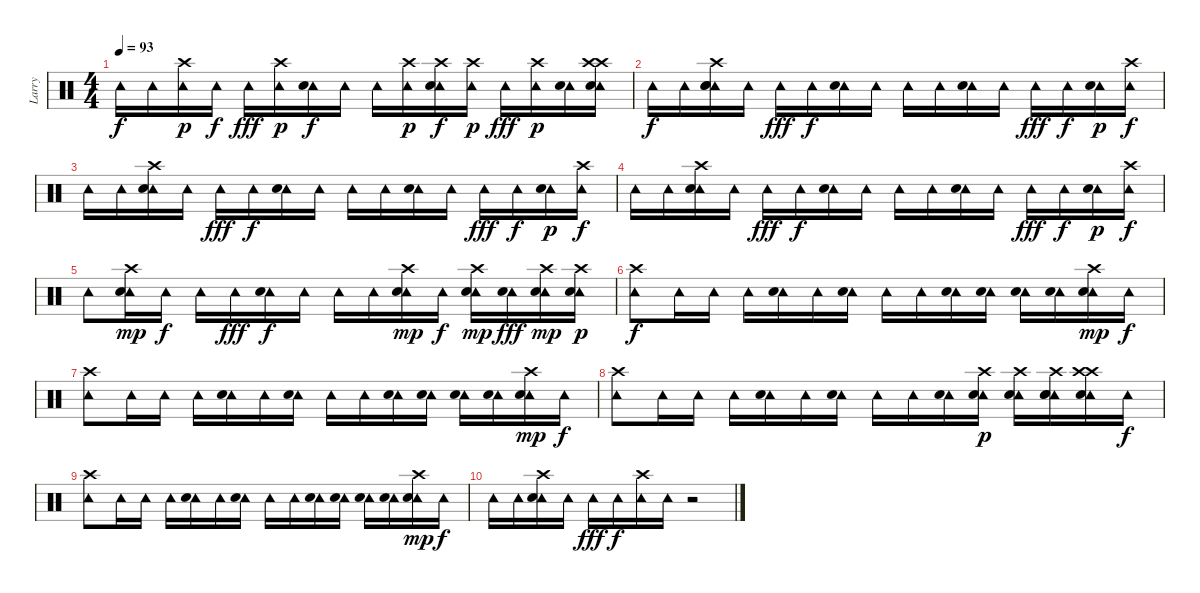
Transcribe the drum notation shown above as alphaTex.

\track ("Larry" "Larry") {instrument percussion}
\staff {score}
\articulation defaults
\ts (4 4)
\tempo 93
\clef neutral
\ks c "Tambourine (hit)".16{dy f} "Tambourine (hit)".16
("Tambourine (hit)" "Crash high (hit)").16{dy p} "Tambourine (hit)".16{dy f} "Tambourine (hit)".16{dy fff} ("Tambourine (hit)" "Crash high (hit)").16{dy p} ("Tambourine (hit)" "Electric Snare (hit)").16{dy f} "Tambourine (hit)".16 "Tambourine (hit)".16 ("Tambourine (hit)" "Crash high (hit)").16{dy p} ("Tambourine (hit)" "Crash high (hit)" "Electric Snare (hit)").16{dy f} ("Tambourine (hit)" "Crash high (hit)").16{dy p} "Tambourine (hit)".16{dy fff} ("Tambourine (hit)" "Crash high (hit)").16{dy p} ("Tambourine (hit)" "Electric Snare (hit)").16 ("Tambourine (hit)" "Electric Snare (hit)" "Crash high (hit)" "Crash high (hit)").16 |
"Tambourine (hit)".16{dy f} "Tambourine (hit)".16 ("Tambourine (hit)" "Crash high (hit)" "Electric Snare (hit)" "Snare (hit) 2").16 "Tambourine (hit)".16 "Tambourine (hit)".16{dy fff} "Tambourine (hit)".16{dy f} ("Tambourine (hit)" "Electric Snare (hit)").16 "Tambourine (hit)".16 "Tambourine (hit)".16 "Tambourine (hit)".16 ("Tambourine (hit)" "Electric Snare (hit)").16 "Tambourine (hit)".16 "Tambourine (hit)".16{dy fff} "Tambourine (hit)".16{dy f} ("Tambourine (hit)" "Electric Snare (hit)").16{dy p} ("Tambourine (hit)" "Crash high (hit)").16{dy f} |
"Tambourine (hit)".16 "Tambourine (hit)".16 ("Tambourine (hit)" "Crash high (hit)" "Electric Snare (hit)").16 "Tambourine (hit)".16 "Tambourine (hit)".16{dy fff} "Tambourine (hit)".16{dy f} ("Tambourine (hit)" "Electric Snare (hit)").16 "Tambourine (hit)".16 "Tambourine (hit)".16 "Tambourine (hit)".16 ("Tambourine (hit)" "Electric Snare (hit)").16 "Tambourine (hit)".16 "Tambourine (hit)".16{dy fff} "Tambourine (hit)".16{dy f} ("Tambourine (hit)" "Electric Snare (hit)").16{dy p} ("Tambourine (hit)" "Crash high (hit)").16{dy f} |
"Tambourine (hit)".16 "Tambourine (hit)".16 ("Tambourine (hit)" "Crash high (hit)" "Electric Snare (hit)").16 "Tambourine (hit)".16 "Tambourine (hit)".16{dy fff} "Tambourine (hit)".16{dy f} ("Tambourine (hit)" "Electric Snare (hit)").16 "Tambourine (hit)".16 "Tambourine (hit)".16 "Tambourine (hit)".16 ("Tambourine (hit)" "Electric Snare (hit)").16 "Tambourine (hit)".16 "Tambourine (hit)".16{dy fff} "Tambourine (hit)".16{dy f} ("Tambourine (hit)" "Electric Snare (hit)").16{dy p} ("Tambourine (hit)" "Crash high (hit)").16{dy f} |
"Tambourine (hit)".8 ("Tambourine (hit)" "Crash high (hit)" "Electric Snare (hit)").16{dy mp} "Tambourine (hit)".16{dy f} "Tambourine (hit)".16 "Tambourine (hit)".16{dy fff} ("Tambourine (hit)" "Electric Snare (hit)").16{dy f} "Tambourine (hit)".16 "Tambourine (hit)".16 "Tambourine (hit)".16 ("Tambourine (hit)" "Electric Snare (hit)" "Crash high (hit)").16{dy mp} "Tambourine (hit)".16{dy f} ("Tambourine (hit)" "Snare (hit) 2" "Crash high (hit)").16{dy mp} ("Tambourine (hit)" "Snare (hit) 2").16{dy fff} ("Tambourine (hit)" "Electric Snare (hit)" "Crash high (hit)").16{dy mp} ("Tambourine (hit)" "Snare (hit) 2" "Crash high (hit)").16{dy p} |
("Tambourine (hit)" "Crash high (hit)").8{dy f} "Tambourine (hit)".16 "Tambourine (hit)".16 "Tambourine (hit)".16 ("Tambourine (hit)" "Electric Snare (hit)").16 "Tambourine (hit)".16 ("Tambourine (hit)" "Electric Snare (hit)").16 "Tambourine (hit)".16 "Tambourine (hit)".16 ("Tambourine (hit)" "Electric Snare (hit)").16 ("Tambourine (hit)" "Snare (hit) 2").16 ("Tambourine (hit)" "Electric Snare (hit)").16 ("Tambourine (hit)" "Snare (hit) 2").16 ("Tambourine (hit)" "Crash high (hit)" "Electric Snare (hit)").16{dy mp} "Tambourine (hit)".16{dy f} |
("Tambourine (hit)" "Crash high (hit)").8 "Tambourine (hit)".16 "Tambourine (hit)".16 "Tambourine (hit)".16 ("Tambourine (hit)" "Electric Snare (hit)").16 "Tambourine (hit)".16 ("Tambourine (hit)" "Electric Snare (hit)").16 "Tambourine (hit)".16 "Tambourine (hit)".16 ("Tambourine (hit)" "Electric Snare (hit)").16 ("Tambourine (hit)" "Snare (hit) 2").16 ("Tambourine (hit)" "Electric Snare (hit)").16 ("Tambourine (hit)" "Snare (hit) 2").16 ("Tambourine (hit)" "Crash high (hit)" "Electric Snare (hit)").16{dy mp} "Tambourine (hit)".16{dy f} |
("Tambourine (hit)" "Crash high (hit)").8 "Tambourine (hit)".16 "Tambourine (hit)".16 "Tambourine (hit)".16 ("Tambourine (hit)" "Electric Snare (hit)").16 "Tambourine (hit)".16 ("Tambourine (hit)" "Electric Snare (hit)").16 "Tambourine (hit)".16 "Tambourine (hit)".16 ("Tambourine (hit)" "Electric Snare (hit)").16 ("Tambourine (hit)" "Snare (hit) 2" "Crash high (hit)").16{dy p} ("Tambourine (hit)" "Snare (hit) 2" "Crash high (hit)").16 ("Tambourine (hit)" "Snare (hit) 2" "Snare (hit) 2" "Crash high (hit)").16 ("Tambourine (hit)" "Crash high (hit)" "Snare (hit) 2" "Crash high (hit)").16 "Tambourine (hit)".16{dy f} |
("Tambourine (hit)" "Crash high (hit)").8 "Tambourine (hit)".16 "Tambourine (hit)".16 "Tambourine (hit)".16 ("Tambourine (hit)" "Electric Snare (hit)").16 "Tambourine (hit)".16 ("Tambourine (hit)" "Electric Snare (hit)").16 "Tambourine (hit)".16 "Tambourine (hit)".16 ("Tambourine (hit)" "Electric Snare (hit)").16 ("Tambourine (hit)" "Snare (hit) 2").16 ("Tambourine (hit)" "Electric Snare (hit)").16 ("Tambourine (hit)" "Snare (hit) 2").16 ("Tambourine (hit)" "Crash high (hit)" "Electric Snare (hit)").16{dy mp} "Tambourine (hit)".16{dy f} |
"Tambourine (hit)".16 "Tambourine (hit)".16 ("Tambourine (hit)" "Crash high (hit)" "Electric Snare (hit)").16 "Tambourine (hit)".16 "Tambourine (hit)".16{dy fff} "Tambourine (hit)".16{dy f} ("Tambourine (hit)" "Crash high (hit)").16 "Tambourine (hit)".16 r.2
